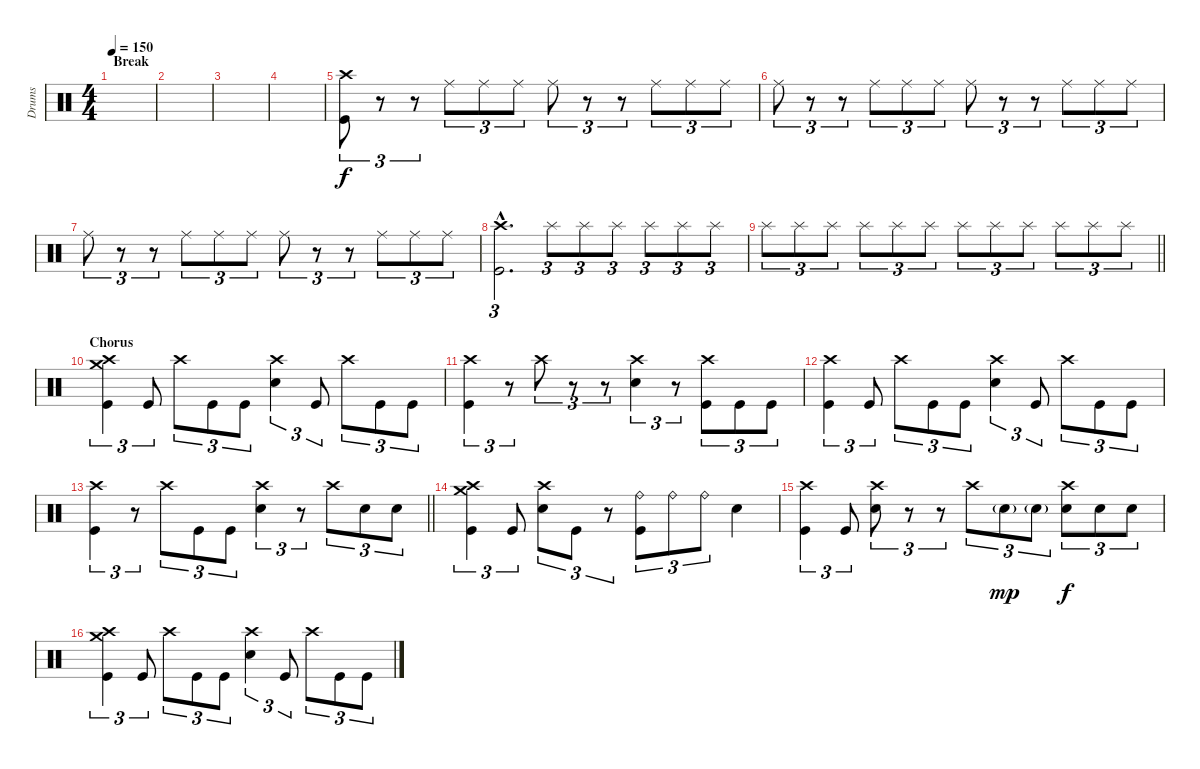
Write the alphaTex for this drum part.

\track ("Drums" "Drums") {instrument percussion}
\staff {score}
\articulation defaults
\ts (4 4)
\section ("" "Break")
\tempo 150
\clef neutral
\ks c
|
|
|
|
("Crash high (hit)" "Kick (hit)").8{tu (3 2)} r.8{tu (3 2)} r.8{tu (3 2)} "Ride (middle)".8{tu (3 2)} "Ride (middle)".8{tu (3 2)} "Ride (middle)".8{tu (3 2)} "Ride (middle)".8{tu (3 2)} r.8{tu (3 2)} r.8{tu (3 2)} "Ride (middle)".8{tu (3 2)} "Ride (middle)".8{tu (3 2)} "Ride (middle)".8{tu (3 2)} |
"Ride (middle)".8{tu (3 2)} r.8{tu (3 2)} r.8{tu (3 2)} "Ride (middle)".8{tu (3 2)} "Ride (middle)".8{tu (3 2)} "Ride (middle)".8{tu (3 2)} "Ride (middle)".8{tu (3 2)} r.8{tu (3 2)} r.8{tu (3 2)} "Ride (middle)".8{tu (3 2)} "Ride (middle)".8{tu (3 2)} "Ride (middle)".8{tu (3 2)} |
"Ride (middle)".8{tu (3 2)} r.8{tu (3 2)} r.8{tu (3 2)} "Ride (middle)".8{tu (3 2)} "Ride (middle)".8{tu (3 2)} "Ride (middle)".8{tu (3 2)} "Ride (middle)".8{tu (3 2)} r.8{tu (3 2)} r.8{tu (3 2)} "Ride (middle)".8{tu (3 2)} "Ride (middle)".8{tu (3 2)} "Ride (middle)".8{tu (3 2)} |
("Crash high (hit)"{hac} "Kick (hit)"{hac}).2{d tu (3 2)} "Splash (hit)".8{tu (3 2)} "Splash (hit)".8{tu (3 2)} "Splash (hit)".8{tu (3 2)} "Splash (hit)".8{tu (3 2)} "Splash (hit)".8{tu (3 2)} "Splash (hit)".8{tu (3 2)} |
\barLineRight lightlight "Splash (hit)".8{tu (3 2)} "Splash (hit)".8{tu (3 2)} "Splash (hit)".8{tu (3 2)} "Splash (hit)".8{tu (3 2)} "Splash (hit)".8{tu (3 2)} "Splash (hit)".8{tu (3 2)} "Splash (hit)".8{tu (3 2)} "Splash (hit)".8{tu (3 2)} "Splash (hit)".8{tu (3 2)} "Splash (hit)".8{tu (3 2)} "Splash (hit)".8{tu (3 2)} "Splash (hit)".8{tu (3 2)}
|
\section ("" "Chorus")
("Crash high (hit)" "Crash medium (hit)" "Kick (hit)").4{tu (3 2)} "Kick (hit)".8{tu (3 2)} "Crash high (hit)".8{tu (3 2)} "Kick (hit)".8{tu (3 2)} "Kick (hit)".8{tu (3 2)} ("Crash high (hit)" "Electric Snare (hit)").4{tu (3 2)} "Kick (hit)".8{tu (3 2)} "Crash high (hit)".8{tu (3 2)} "Kick (hit)".8{tu (3 2)} "Kick (hit)".8{tu (3 2)} |
("Crash high (hit)" "Kick (hit)").4{tu (3 2)} r.8{tu (3 2)} "Crash high (hit)".8{tu (3 2)} r.8{tu (3 2)} r.8{tu (3 2)} ("Crash high (hit)" "Electric Snare (hit)").4{tu (3 2)} r.8{tu (3 2)} ("Crash high (hit)" "Kick (hit)").8{tu (3 2)} "Kick (hit)".8{tu (3 2)} "Kick (hit)".8{tu (3 2)} |
("Crash high (hit)" "Kick (hit)").4{tu (3 2)} "Kick (hit)".8{tu (3 2)} "Crash high (hit)".8{tu (3 2)} "Kick (hit)".8{tu (3 2)} "Kick (hit)".8{tu (3 2)} ("Crash high (hit)" "Electric Snare (hit)").4{tu (3 2)} "Kick (hit)".8{tu (3 2)} "Crash high (hit)".8{tu (3 2)} "Kick (hit)".8{tu (3 2)} "Kick (hit)".8{tu (3 2)} |
\barLineRight lightlight
("Crash high (hit)" "Kick (hit)").4{tu (3 2)} r.8{tu (3 2)} "Crash high (hit)".8{tu (3 2)} "Kick (hit)".8{tu (3 2)} "Kick (hit)".8{tu (3 2)} ("Crash high (hit)" "Electric Snare (hit)").4{tu (3 2)} r.8{tu (3 2)} "Crash high (hit)".8{tu (3 2)} "Electric Snare (hit)".8{tu (3 2)} "Electric Snare (hit)".8{tu (3 2)} |
("Crash high (hit)" "Crash medium (hit)" "Kick (hit)").4{tu (3 2)} "Kick (hit)".8{tu (3 2)} ("Crash high (hit)" "Electric Snare (hit)").8{tu (3 2)} "Kick (hit)".8{tu (3 2)} r.8{tu (3 2)} ("Ride (bell)" "Kick (hit)").8{tu (3 2)} "Ride (bell)".8{tu (3 2)} "Ride (bell)".8{tu (3 2)} "Electric Snare (hit)".4 |
("Crash high (hit)" "Kick (hit)").4{tu (3 2)} "Kick (hit)".8{tu (3 2)} ("Crash high (hit)" "Electric Snare (hit)").8{tu (3 2)} r.8{tu (3 2)} r.8{tu (3 2)} "Crash high (hit)".8{tu (3 2)} "Electric Snare (hit)"{g}.8{tu (3 2) dy mp} "Electric Snare (hit)"{g}.8{tu (3 2)} ("Crash high (hit)" "Electric Snare (hit)").8{tu (3 2) dy f} "Electric Snare (hit)".8{tu (3 2)} "Electric Snare (hit)".8{tu (3 2)} |
("Crash high (hit)" "Crash medium (hit)" "Kick (hit)").4{tu (3 2)} "Kick (hit)".8{tu (3 2)} "Crash high (hit)".8{tu (3 2)} "Kick (hit)".8{tu (3 2)} "Kick (hit)".8{tu (3 2)} ("Crash high (hit)" "Electric Snare (hit)").4{tu (3 2)} "Kick (hit)".8{tu (3 2)} "Crash high (hit)".8{tu (3 2)} "Kick (hit)".8{tu (3 2)} "Kick (hit)".8{tu (3 2)}
